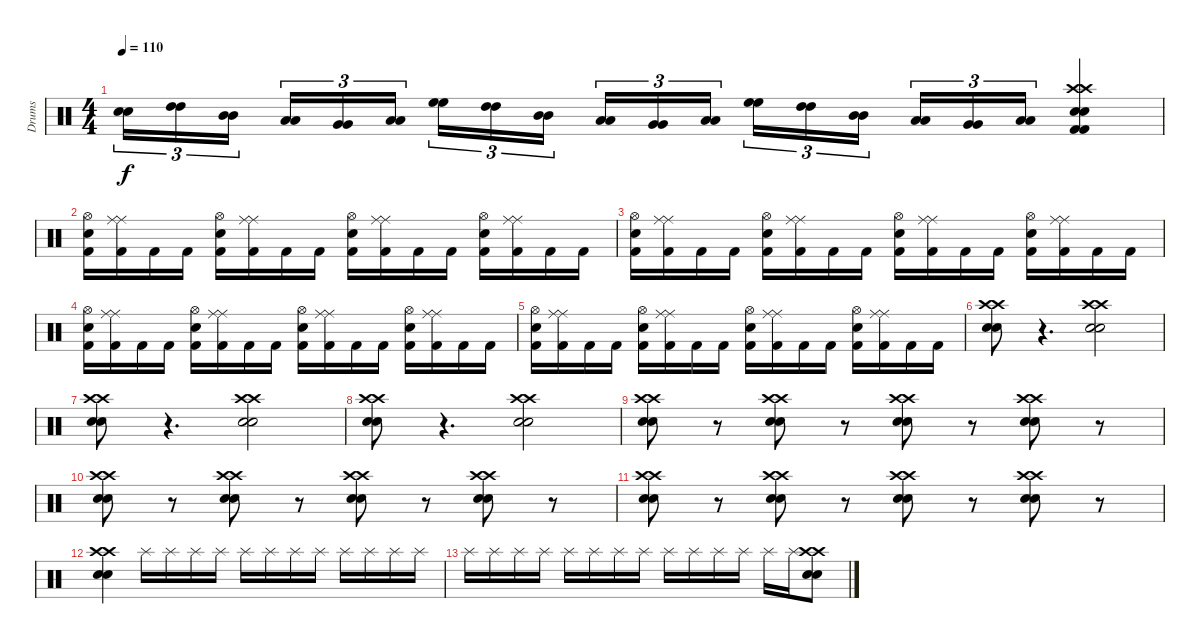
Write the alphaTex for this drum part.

\track ("Drums" "Drums") {instrument percussion}
\staff {score}
\articulation defaults
\ts (4 4)
\tempo 110
\clef neutral
\ks c
("Snare (hit) 2" "Snare (hit) 2").16{tu (3 2) dy f} ("High Tom (hit)" "High Tom (hit)").16{tu (3 2)} ("Mid Tom (hit)" "Mid Tom (hit)").16{tu (3 2)} ("Low Tom (hit)" "Low Tom (hit)").16{tu (3 2)} ("Very Low Tom (hit)" "Very Low Tom (hit)").16{tu (3 2)} ("Low Floor Tom (hit)" "Low Floor Tom (hit)").16{tu (3 2)} ("High Floor Tom (hit)" "High Floor Tom (hit)").16{tu (3 2)} ("High Tom (hit)" "High Tom (hit)").16{tu (3 2)} ("Mid Tom (hit)" "Mid Tom (hit)").16{tu (3 2)} ("Low Tom (hit)" "Low Tom (hit)").16{tu (3 2)} ("Very Low Tom (hit)" "Very Low Tom (hit)").16{tu (3 2)} ("Low Floor Tom (hit)" "Low Floor Tom (hit)").16{tu (3 2)} ("High Floor Tom (hit)" "High Floor Tom (hit)").16{tu (3 2)} ("High Tom (hit)" "High Tom (hit)").16{tu (3 2)} ("Mid Tom (hit)" "Mid Tom (hit)").16{tu (3 2)} ("Low Tom (hit)" "Low Tom (hit)").16{tu (3 2)} ("Very Low Tom (hit)" "Very Low Tom (hit)").16{tu (3 2)} ("Low Floor Tom (hit)" "Low Floor Tom (hit)").16{tu (3 2)} ("Crash high (hit)" "Crash high (hit)" "Kick (hit) 2" "Kick (hit) 2" "Snare (hit) 2" "Snare (hit) 2").4 |
("Kick (hit) 2" "Hi-Hat (open)" "Snare (hit) 2").16 ("Ride (middle)" "Ride (middle)" "Kick (hit) 2").16 "Kick (hit) 2".16 "Kick (hit) 2".16 ("Hi-Hat (open)" "Snare (hit) 2" "Kick (hit) 2").16 ("Ride (middle)" "Ride (middle)" "Kick (hit) 2").16 "Kick (hit) 2".16 "Kick (hit) 2".16 ("Kick (hit) 2" "Hi-Hat (open)" "Snare (hit) 2").16 ("Ride (middle)" "Ride (middle)" "Kick (hit) 2").16 "Kick (hit) 2".16 "Kick (hit) 2".16 ("Hi-Hat (open)" "Snare (hit) 2" "Kick (hit) 2").16 ("Ride (middle)" "Ride (middle)" "Kick (hit) 2").16 "Kick (hit) 2".16 "Kick (hit) 2".16 |
("Kick (hit) 2" "Hi-Hat (open)" "Snare (hit) 2").16 ("Ride (middle)" "Ride (middle)" "Kick (hit) 2").16 "Kick (hit) 2".16 "Kick (hit) 2".16 ("Hi-Hat (open)" "Snare (hit) 2" "Kick (hit) 2").16 ("Ride (middle)" "Ride (middle)" "Kick (hit) 2").16 "Kick (hit) 2".16 "Kick (hit) 2".16 ("Kick (hit) 2" "Hi-Hat (open)" "Snare (hit) 2").16 ("Ride (middle)" "Ride (middle)" "Kick (hit) 2").16 "Kick (hit) 2".16 "Kick (hit) 2".16 ("Hi-Hat (open)" "Snare (hit) 2" "Kick (hit) 2").16 ("Ride (middle)" "Ride (middle)" "Kick (hit) 2").16 "Kick (hit) 2".16 "Kick (hit) 2".16 |
("Kick (hit) 2" "Hi-Hat (open)" "Snare (hit) 2").16 ("Ride (middle)" "Ride (middle)" "Kick (hit) 2").16 "Kick (hit) 2".16 "Kick (hit) 2".16 ("Hi-Hat (open)" "Snare (hit) 2" "Kick (hit) 2").16 ("Ride (middle)" "Ride (middle)" "Kick (hit) 2").16 "Kick (hit) 2".16 "Kick (hit) 2".16 ("Kick (hit) 2" "Hi-Hat (open)" "Snare (hit) 2").16 ("Ride (middle)" "Ride (middle)" "Kick (hit) 2").16 "Kick (hit) 2".16 "Kick (hit) 2".16 ("Hi-Hat (open)" "Snare (hit) 2" "Kick (hit) 2").16 ("Ride (middle)" "Ride (middle)" "Kick (hit) 2").16 "Kick (hit) 2".16 "Kick (hit) 2".16 |
("Kick (hit) 2" "Hi-Hat (open)" "Snare (hit) 2").16 ("Ride (middle)" "Ride (middle)" "Kick (hit) 2").16 "Kick (hit) 2".16 "Kick (hit) 2".16 ("Hi-Hat (open)" "Snare (hit) 2" "Kick (hit) 2").16 ("Ride (middle)" "Ride (middle)" "Kick (hit) 2").16 "Kick (hit) 2".16 "Kick (hit) 2".16 ("Kick (hit) 2" "Hi-Hat (open)" "Snare (hit) 2").16 ("Ride (middle)" "Ride (middle)" "Kick (hit) 2").16 "Kick (hit) 2".16 "Kick (hit) 2".16 ("Hi-Hat (open)" "Snare (hit) 2" "Kick (hit) 2").16 ("Ride (middle)" "Ride (middle)" "Kick (hit) 2").16 "Kick (hit) 2".16 "Kick (hit) 2".16 |
("Crash high (hit)" "Crash high (hit)" "Snare (hit) 2" "Snare (hit) 2").8 r.4{d} ("Crash high (hit)" "Crash high (hit)" "Snare (hit) 2" "Snare (hit) 2").2 |
("Crash high (hit)" "Crash high (hit)" "Snare (hit) 2" "Snare (hit) 2").8 r.4{d} ("Crash high (hit)" "Crash high (hit)" "Snare (hit) 2" "Snare (hit) 2").2 |
("Crash high (hit)" "Crash high (hit)" "Snare (hit) 2" "Snare (hit) 2").8 r.4{d} ("Crash high (hit)" "Crash high (hit)" "Snare (hit) 2" "Snare (hit) 2").2 |
("Crash high (hit)" "Crash high (hit)" "Snare (hit) 2" "Snare (hit) 2").8 r.8 ("Crash high (hit)" "Crash high (hit)" "Snare (hit) 2" "Snare (hit) 2").8 r.8 ("Crash high (hit)" "Crash high (hit)" "Snare (hit) 2" "Snare (hit) 2").8 r.8 ("Crash high (hit)" "Crash high (hit)" "Snare (hit) 2" "Snare (hit) 2").8 r.8 |
("Crash high (hit)" "Crash high (hit)" "Snare (hit) 2" "Snare (hit) 2").8 r.8 ("Crash high (hit)" "Crash high (hit)" "Snare (hit) 2" "Snare (hit) 2").8 r.8 ("Crash high (hit)" "Crash high (hit)" "Snare (hit) 2" "Snare (hit) 2").8 r.8 ("Crash high (hit)" "Crash high (hit)" "Snare (hit) 2" "Snare (hit) 2").8 r.8 |
("Crash high (hit)" "Crash high (hit)" "Snare (hit) 2" "Snare (hit) 2").8 r.8 ("Crash high (hit)" "Crash high (hit)" "Snare (hit) 2" "Snare (hit) 2").8 r.8 ("Crash high (hit)" "Crash high (hit)" "Snare (hit) 2" "Snare (hit) 2").8 r.8 ("Crash high (hit)" "Crash high (hit)" "Snare (hit) 2" "Snare (hit) 2").8 r.8 |
("Crash high (hit)" "Crash high (hit)" "Snare (hit) 2" "Snare (hit) 2").4 "Splash (hit)".16 "Splash (hit)".16 "Splash (hit)".16 "Splash (hit)".16 "Splash (hit)".16 "Splash (hit)".16 "Splash (hit)".16 "Splash (hit)".16 "Splash (hit)".16 "Splash (hit)".16 "Splash (hit)".16 "Splash (hit)".16 |
"Splash (hit)".16 "Splash (hit)".16 "Splash (hit)".16 "Splash (hit)".16 "Splash (hit)".16 "Splash (hit)".16 "Splash (hit)".16 "Splash (hit)".16 "Splash (hit)".16 "Splash (hit)".16 "Splash (hit)".16 "Splash (hit)".16 "Splash (hit)".16 "Splash (hit)".16 ("Crash high (hit)" "Crash high (hit)" "Snare (hit) 2" "Snare (hit) 2").8
